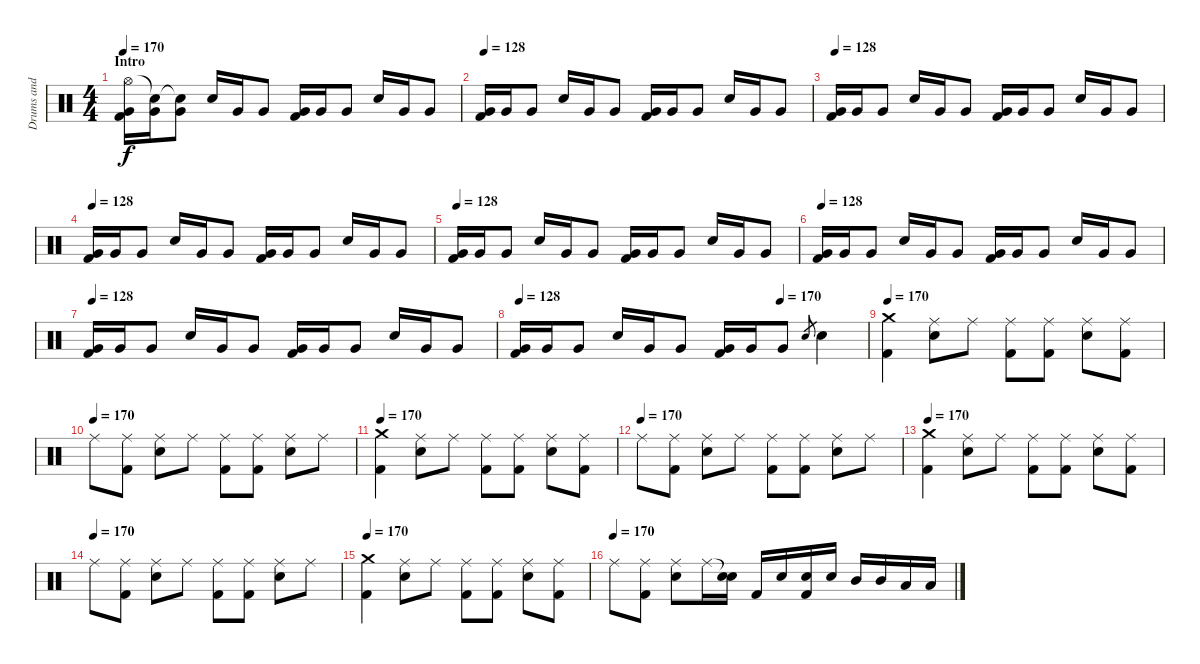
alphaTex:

\track ("Drums and Percussion" "Drums and ") {instrument percussion}
\staff {score}
\articulation defaults
\ts (4 4)
\section ("" "Intro")
\tempo 170
\tempo 128
\tempo 170
\clef neutral
\ks c
("Hi-Hat (open)" "Very Low Tom (hit)" "Kick (hit) 2").16{dy f} ("Snare (hit)"{t} "Very Low Tom (hit)").16 ("Snare (hit)"{t} "Very Low Tom (hit)").8 "Electric Snare (hit)".16 "Very Low Tom (hit)".16 "Very Low Tom (hit)".8 ("Very Low Tom (hit)" "Kick (hit) 2").16 "Very Low Tom (hit)".16 "Very Low Tom (hit)".8 "Electric Snare (hit)".16 "Very Low Tom (hit)".16 "Very Low Tom (hit)".8 |
\tempo 128
("Very Low Tom (hit)" "Kick (hit) 2").16 "Very Low Tom (hit)".16 "Very Low Tom (hit)".8 "Electric Snare (hit)".16 "Very Low Tom (hit)".16 "Very Low Tom (hit)".8 ("Very Low Tom (hit)" "Kick (hit) 2").16 "Very Low Tom (hit)".16 "Very Low Tom (hit)".8 "Electric Snare (hit)".16 "Very Low Tom (hit)".16 "Very Low Tom (hit)".8 |
\tempo 128
("Very Low Tom (hit)" "Kick (hit) 2").16 "Very Low Tom (hit)".16 "Very Low Tom (hit)".8 "Electric Snare (hit)".16 "Very Low Tom (hit)".16 "Very Low Tom (hit)".8 ("Very Low Tom (hit)" "Kick (hit) 2").16 "Very Low Tom (hit)".16 "Very Low Tom (hit)".8 "Electric Snare (hit)".16 "Very Low Tom (hit)".16 "Very Low Tom (hit)".8 |
\tempo 128
("Very Low Tom (hit)" "Kick (hit) 2").16 "Very Low Tom (hit)".16 "Very Low Tom (hit)".8 "Electric Snare (hit)".16 "Very Low Tom (hit)".16 "Very Low Tom (hit)".8 ("Very Low Tom (hit)" "Kick (hit) 2").16 "Very Low Tom (hit)".16 "Very Low Tom (hit)".8 "Electric Snare (hit)".16 "Very Low Tom (hit)".16 "Very Low Tom (hit)".8 |
\tempo 128
("Very Low Tom (hit)" "Kick (hit) 2").16 "Very Low Tom (hit)".16 "Very Low Tom (hit)".8 "Electric Snare (hit)".16 "Very Low Tom (hit)".16 "Very Low Tom (hit)".8 ("Very Low Tom (hit)" "Kick (hit) 2").16 "Very Low Tom (hit)".16 "Very Low Tom (hit)".8 "Electric Snare (hit)".16 "Very Low Tom (hit)".16 "Very Low Tom (hit)".8 |
\tempo 128
("Very Low Tom (hit)" "Kick (hit) 2").16 "Very Low Tom (hit)".16 "Very Low Tom (hit)".8 "Electric Snare (hit)".16 "Very Low Tom (hit)".16 "Very Low Tom (hit)".8 ("Very Low Tom (hit)" "Kick (hit) 2").16 "Very Low Tom (hit)".16 "Very Low Tom (hit)".8 "Electric Snare (hit)".16 "Very Low Tom (hit)".16 "Very Low Tom (hit)".8 |
\tempo 128
("Very Low Tom (hit)" "Kick (hit) 2").16 "Very Low Tom (hit)".16 "Very Low Tom (hit)".8 "Electric Snare (hit)".16 "Very Low Tom (hit)".16 "Very Low Tom (hit)".8 ("Very Low Tom (hit)" "Kick (hit) 2").16 "Very Low Tom (hit)".16 "Very Low Tom (hit)".8 "Electric Snare (hit)".16 "Very Low Tom (hit)".16 "Very Low Tom (hit)".8 |
\tempo 128
\tempo (170 0.75)
("Very Low Tom (hit)" "Kick (hit) 2").16 "Very Low Tom (hit)".16 "Very Low Tom (hit)".8 "Electric Snare (hit)".16 "Very Low Tom (hit)".16 "Very Low Tom (hit)".8 ("Very Low Tom (hit)" "Kick (hit) 2").16 "Very Low Tom (hit)".16 "Very Low Tom (hit)".8 "Electric Snare (hit)".8{gr} "Electric Snare (hit)".4 |
\tempo 170
("Crash medium (hit)" "Kick (hit) 2").4 ("Ride (middle)" "Electric Snare (hit)").8 "Ride (middle)".8 ("Ride (middle)" "Kick (hit) 2").8 ("Ride (middle)" "Kick (hit) 2").8 ("Ride (middle)" "Electric Snare (hit)").8 ("Ride (middle)" "Kick (hit) 2").8 |
\tempo (170)
"Ride (middle)".8 ("Ride (middle)" "Kick (hit) 2").8 ("Ride (middle)" "Electric Snare (hit)").8 "Ride (middle)".8 ("Ride (middle)" "Kick (hit) 2").8 ("Ride (middle)" "Kick (hit) 2").8 ("Ride (middle)" "Electric Snare (hit)").8 "Ride (middle)".8 |
\tempo 170
("Crash medium (hit)" "Kick (hit) 2").4 ("Ride (middle)" "Electric Snare (hit)").8 "Ride (middle)".8 ("Ride (middle)" "Kick (hit) 2").8 ("Ride (middle)" "Kick (hit) 2").8 ("Ride (middle)" "Electric Snare (hit)").8 ("Ride (middle)" "Kick (hit) 2").8 |
\tempo (170)
"Ride (middle)".8 ("Ride (middle)" "Kick (hit) 2").8 ("Ride (middle)" "Electric Snare (hit)").8 "Ride (middle)".8 ("Ride (middle)" "Kick (hit) 2").8 ("Ride (middle)" "Kick (hit) 2").8 ("Ride (middle)" "Electric Snare (hit)").8 "Ride (middle)".8 |
\tempo 170
("Crash medium (hit)" "Kick (hit) 2").4 ("Ride (middle)" "Electric Snare (hit)").8 "Ride (middle)".8 ("Ride (middle)" "Kick (hit) 2").8 ("Ride (middle)" "Kick (hit) 2").8 ("Ride (middle)" "Electric Snare (hit)").8 ("Ride (middle)" "Kick (hit) 2").8 |
\tempo (170)
"Ride (middle)".8 ("Ride (middle)" "Kick (hit) 2").8 ("Ride (middle)" "Electric Snare (hit)").8 "Ride (middle)".8 ("Ride (middle)" "Kick (hit) 2").8 ("Ride (middle)" "Kick (hit) 2").8 ("Ride (middle)" "Electric Snare (hit)").8 "Ride (middle)".8 |
\tempo 170
("Crash medium (hit)" "Kick (hit) 2").4 ("Ride (middle)" "Electric Snare (hit)").8 "Ride (middle)".8 ("Ride (middle)" "Kick (hit) 2").8 ("Ride (middle)" "Kick (hit) 2").8 ("Ride (middle)" "Electric Snare (hit)").8 ("Ride (middle)" "Kick (hit) 2").8 |
\tempo (170)
"Ride (middle)".8 ("Ride (middle)" "Kick (hit) 2").8 ("Ride (middle)" "Electric Snare (hit)").8 "Ride (middle)".16 ("Snare (hit)"{t} "Electric Snare (hit)").16 "Kick (hit) 2".16 "Electric Snare (hit)".16 ("Electric Snare (hit)" "Kick (hit) 2").16 "Electric Snare (hit)".16 "Mid Tom (hit)".16 "Mid Tom (hit)".16 "Low Tom (hit)".16 "Low Tom (hit)".16
